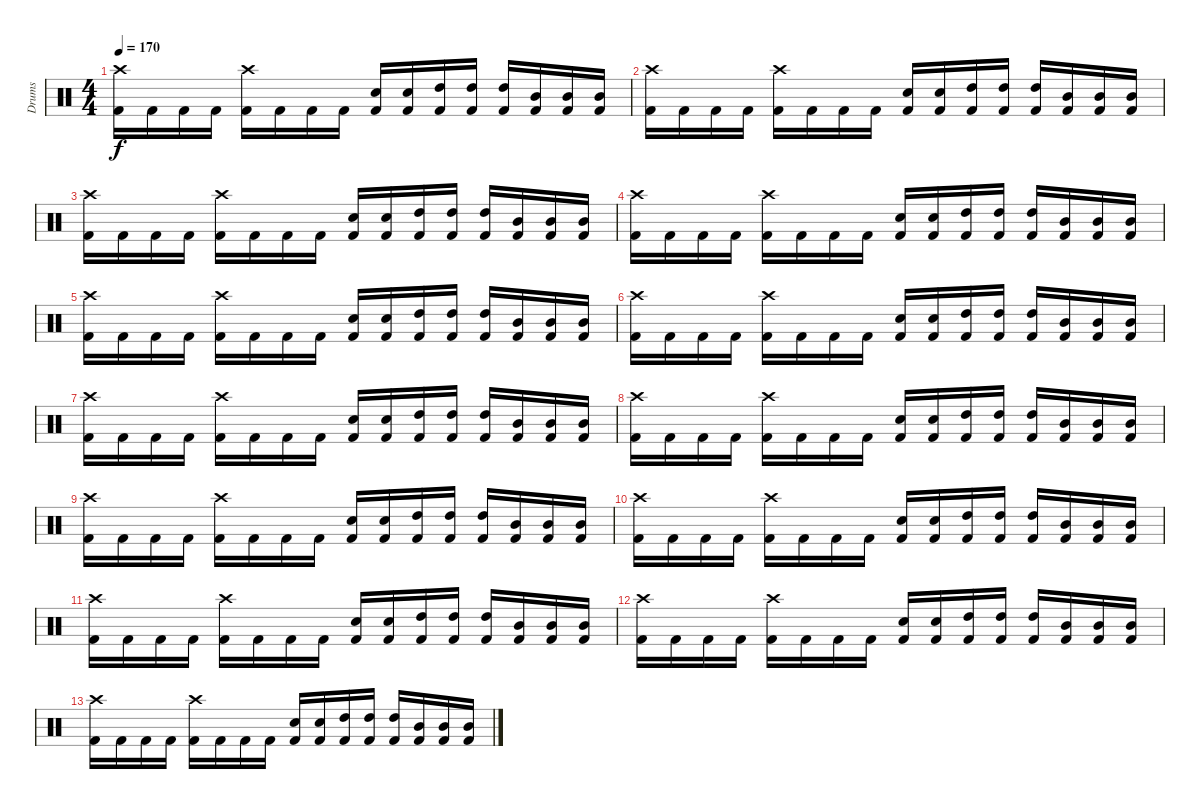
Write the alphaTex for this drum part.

\track ("Drums" "Drums") {instrument percussion}
\staff {score}
\articulation defaults
\ts (4 4)
\tempo 170
\clef neutral
\ks c
("Crash high (hit)" "Kick (hit) 2").16{dy f} "Kick (hit) 2".16 "Kick (hit) 2".16 "Kick (hit) 2".16 ("Crash high (hit)" "Kick (hit) 2").16 "Kick (hit) 2".16 "Kick (hit) 2".16 "Kick (hit) 2".16 ("Snare (hit) 2" "Kick (hit) 2").16 ("Snare (hit) 2" "Kick (hit) 2").16 ("High Tom (hit)" "Kick (hit) 2").16 ("High Tom (hit)" "Kick (hit) 2").16 ("High Tom (hit)" "Kick (hit) 2").16 ("Mid Tom (hit)" "Kick (hit) 2").16 ("Mid Tom (hit)" "Kick (hit) 2").16 ("Mid Tom (hit)" "Kick (hit) 2").16 |
("Crash high (hit)" "Kick (hit) 2").16{volume 11} "Kick (hit) 2".16 "Kick (hit) 2".16 "Kick (hit) 2".16 ("Crash high (hit)" "Kick (hit) 2").16 "Kick (hit) 2".16 "Kick (hit) 2".16 "Kick (hit) 2".16 ("Snare (hit) 2" "Kick (hit) 2").16 ("Snare (hit) 2" "Kick (hit) 2").16 ("High Tom (hit)" "Kick (hit) 2").16 ("High Tom (hit)" "Kick (hit) 2").16 ("High Tom (hit)" "Kick (hit) 2").16 ("Mid Tom (hit)" "Kick (hit) 2").16 ("Mid Tom (hit)" "Kick (hit) 2").16 ("Mid Tom (hit)" "Kick (hit) 2").16 |
("Crash high (hit)" "Kick (hit) 2").16{volume 10} "Kick (hit) 2".16 "Kick (hit) 2".16 "Kick (hit) 2".16 ("Crash high (hit)" "Kick (hit) 2").16 "Kick (hit) 2".16 "Kick (hit) 2".16 "Kick (hit) 2".16 ("Snare (hit) 2" "Kick (hit) 2").16 ("Snare (hit) 2" "Kick (hit) 2").16 ("High Tom (hit)" "Kick (hit) 2").16 ("High Tom (hit)" "Kick (hit) 2").16 ("High Tom (hit)" "Kick (hit) 2").16 ("Mid Tom (hit)" "Kick (hit) 2").16 ("Mid Tom (hit)" "Kick (hit) 2").16 ("Mid Tom (hit)" "Kick (hit) 2").16 |
("Crash high (hit)" "Kick (hit) 2").16{volume 8} "Kick (hit) 2".16 "Kick (hit) 2".16 "Kick (hit) 2".16 ("Crash high (hit)" "Kick (hit) 2").16 "Kick (hit) 2".16 "Kick (hit) 2".16 "Kick (hit) 2".16 ("Snare (hit) 2" "Kick (hit) 2").16 ("Snare (hit) 2" "Kick (hit) 2").16 ("High Tom (hit)" "Kick (hit) 2").16 ("High Tom (hit)" "Kick (hit) 2").16 ("High Tom (hit)" "Kick (hit) 2").16 ("Mid Tom (hit)" "Kick (hit) 2").16 ("Mid Tom (hit)" "Kick (hit) 2").16 ("Mid Tom (hit)" "Kick (hit) 2").16 |
("Crash high (hit)" "Kick (hit) 2").16{volume 7} "Kick (hit) 2".16 "Kick (hit) 2".16 "Kick (hit) 2".16 ("Crash high (hit)" "Kick (hit) 2").16 "Kick (hit) 2".16 "Kick (hit) 2".16 "Kick (hit) 2".16 ("Snare (hit) 2" "Kick (hit) 2").16 ("Snare (hit) 2" "Kick (hit) 2").16 ("High Tom (hit)" "Kick (hit) 2").16 ("High Tom (hit)" "Kick (hit) 2").16 ("High Tom (hit)" "Kick (hit) 2").16 ("Mid Tom (hit)" "Kick (hit) 2").16 ("Mid Tom (hit)" "Kick (hit) 2").16 ("Mid Tom (hit)" "Kick (hit) 2").16 |
("Crash high (hit)" "Kick (hit) 2").16{volume 5} "Kick (hit) 2".16 "Kick (hit) 2".16 "Kick (hit) 2".16 ("Crash high (hit)" "Kick (hit) 2").16 "Kick (hit) 2".16 "Kick (hit) 2".16 "Kick (hit) 2".16 ("Snare (hit) 2" "Kick (hit) 2").16 ("Snare (hit) 2" "Kick (hit) 2").16 ("High Tom (hit)" "Kick (hit) 2").16 ("High Tom (hit)" "Kick (hit) 2").16 ("High Tom (hit)" "Kick (hit) 2").16 ("Mid Tom (hit)" "Kick (hit) 2").16 ("Mid Tom (hit)" "Kick (hit) 2").16 ("Mid Tom (hit)" "Kick (hit) 2").16 |
("Crash high (hit)" "Kick (hit) 2").16{volume 4} "Kick (hit) 2".16 "Kick (hit) 2".16 "Kick (hit) 2".16 ("Crash high (hit)" "Kick (hit) 2").16 "Kick (hit) 2".16 "Kick (hit) 2".16 "Kick (hit) 2".16 ("Snare (hit) 2" "Kick (hit) 2").16 ("Snare (hit) 2" "Kick (hit) 2").16 ("High Tom (hit)" "Kick (hit) 2").16 ("High Tom (hit)" "Kick (hit) 2").16 ("High Tom (hit)" "Kick (hit) 2").16 ("Mid Tom (hit)" "Kick (hit) 2").16 ("Mid Tom (hit)" "Kick (hit) 2").16 ("Mid Tom (hit)" "Kick (hit) 2").16 |
("Crash high (hit)" "Kick (hit) 2").16{volume 3} "Kick (hit) 2".16 "Kick (hit) 2".16 "Kick (hit) 2".16 ("Crash high (hit)" "Kick (hit) 2").16 "Kick (hit) 2".16 "Kick (hit) 2".16 "Kick (hit) 2".16 ("Snare (hit) 2" "Kick (hit) 2").16 ("Snare (hit) 2" "Kick (hit) 2").16 ("High Tom (hit)" "Kick (hit) 2").16 ("High Tom (hit)" "Kick (hit) 2").16 ("High Tom (hit)" "Kick (hit) 2").16 ("Mid Tom (hit)" "Kick (hit) 2").16 ("Mid Tom (hit)" "Kick (hit) 2").16 ("Mid Tom (hit)" "Kick (hit) 2").16 |
("Crash high (hit)" "Kick (hit) 2").16{volume 2} "Kick (hit) 2".16 "Kick (hit) 2".16 "Kick (hit) 2".16 ("Crash high (hit)" "Kick (hit) 2").16 "Kick (hit) 2".16 "Kick (hit) 2".16 "Kick (hit) 2".16 ("Snare (hit) 2" "Kick (hit) 2").16 ("Snare (hit) 2" "Kick (hit) 2").16 ("High Tom (hit)" "Kick (hit) 2").16 ("High Tom (hit)" "Kick (hit) 2").16 ("High Tom (hit)" "Kick (hit) 2").16 ("Mid Tom (hit)" "Kick (hit) 2").16 ("Mid Tom (hit)" "Kick (hit) 2").16 ("Mid Tom (hit)" "Kick (hit) 2").16 |
("Crash high (hit)" "Kick (hit) 2").16 "Kick (hit) 2".16 "Kick (hit) 2".16 "Kick (hit) 2".16 ("Crash high (hit)" "Kick (hit) 2").16 "Kick (hit) 2".16 "Kick (hit) 2".16 "Kick (hit) 2".16 ("Snare (hit) 2" "Kick (hit) 2").16 ("Snare (hit) 2" "Kick (hit) 2").16 ("High Tom (hit)" "Kick (hit) 2").16 ("High Tom (hit)" "Kick (hit) 2").16 ("High Tom (hit)" "Kick (hit) 2").16 ("Mid Tom (hit)" "Kick (hit) 2").16 ("Mid Tom (hit)" "Kick (hit) 2").16 ("Mid Tom (hit)" "Kick (hit) 2").16 |
("Crash high (hit)" "Kick (hit) 2").16 "Kick (hit) 2".16 "Kick (hit) 2".16 "Kick (hit) 2".16 ("Crash high (hit)" "Kick (hit) 2").16 "Kick (hit) 2".16 "Kick (hit) 2".16 "Kick (hit) 2".16 ("Snare (hit) 2" "Kick (hit) 2").16 ("Snare (hit) 2" "Kick (hit) 2").16 ("High Tom (hit)" "Kick (hit) 2").16 ("High Tom (hit)" "Kick (hit) 2").16 ("High Tom (hit)" "Kick (hit) 2").16 ("Mid Tom (hit)" "Kick (hit) 2").16{volume 0} ("Mid Tom (hit)" "Kick (hit) 2").16 ("Mid Tom (hit)" "Kick (hit) 2").16 |
("Crash high (hit)" "Kick (hit) 2").16 "Kick (hit) 2".16 "Kick (hit) 2".16 "Kick (hit) 2".16 ("Crash high (hit)" "Kick (hit) 2").16 "Kick (hit) 2".16 "Kick (hit) 2".16 "Kick (hit) 2".16 ("Snare (hit) 2" "Kick (hit) 2").16 ("Snare (hit) 2" "Kick (hit) 2").16 ("High Tom (hit)" "Kick (hit) 2").16 ("High Tom (hit)" "Kick (hit) 2").16 ("High Tom (hit)" "Kick (hit) 2").16 ("Mid Tom (hit)" "Kick (hit) 2").16 ("Mid Tom (hit)" "Kick (hit) 2").16 ("Mid Tom (hit)" "Kick (hit) 2").16 |
("Crash high (hit)" "Kick (hit) 2").16 "Kick (hit) 2".16 "Kick (hit) 2".16 "Kick (hit) 2".16 ("Crash high (hit)" "Kick (hit) 2").16 "Kick (hit) 2".16 "Kick (hit) 2".16 "Kick (hit) 2".16 ("Snare (hit) 2" "Kick (hit) 2").16 ("Snare (hit) 2" "Kick (hit) 2").16 ("High Tom (hit)" "Kick (hit) 2").16 ("High Tom (hit)" "Kick (hit) 2").16 ("High Tom (hit)" "Kick (hit) 2").16 ("Mid Tom (hit)" "Kick (hit) 2").16 ("Mid Tom (hit)" "Kick (hit) 2").16 ("Mid Tom (hit)" "Kick (hit) 2").16
